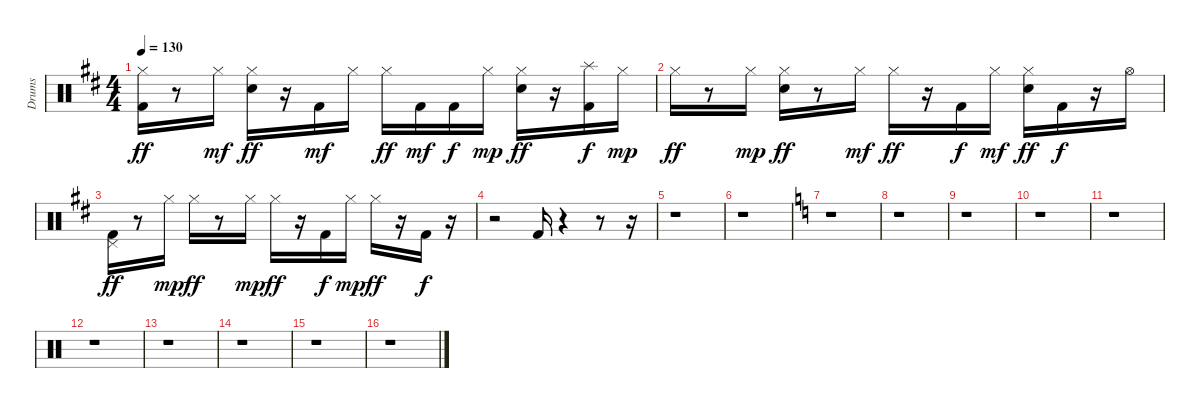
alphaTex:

\track ("Drums" "Drums") {instrument percussion}
\staff {score}
\articulation defaults
\ts (4 4)
\tempo 130
\clef neutral
\ks d
("Kick (hit) 2" "Hi-Hat (closed)").16{dy ff} r.8 "Hi-Hat (closed)".16{dy mf} ("Electric Snare (hit)" "Hi-Hat (closed)").16{dy ff} r.16 "Kick (hit) 2".16{dy mf} "Hi-Hat (closed)".16 "Hi-Hat (closed)".16{dy ff} "Kick (hit) 2".16{dy mf} "Kick (hit) 2".16{dy f} "Hi-Hat (closed)".16{dy mp} ("Electric Snare (hit)" "Hi-Hat (closed)").16{dy ff} r.16 ("Splash (hit)" "Kick (hit) 2").16{dy f} "Hi-Hat (closed)".16{dy mp} |
"Hi-Hat (closed)".16{dy ff} r.8 "Hi-Hat (closed)".16{dy mp} ("Hi-Hat (closed)" "Electric Snare (hit)").16{dy ff} r.8 "Hi-Hat (closed)".16{dy mf} "Hi-Hat (closed)".16{dy ff} r.16 "Kick (hit) 2".16{dy f} "Hi-Hat (closed)".16{dy mf} ("Hi-Hat (closed)" "Electric Snare (hit)").16{dy ff} "Kick (hit) 2".16{dy f} r.16 "Hi-Hat (open)".16 |
("Kick (hit) 2" "Pedal Hi-Hat (hit)").16{dy ff} r.8 "Hi-Hat (closed)".16{dy mp} "Hi-Hat (closed)".16{dy ff} r.8 "Hi-Hat (closed)".16{dy mp} "Hi-Hat (closed)".16{dy ff} r.16 "Kick (hit) 2".16{dy f} "Hi-Hat (closed)".16{dy mp} "Hi-Hat (closed)".16{dy ff} r.16 "Kick (hit) 2".16{dy f} r.16 |
r.2 "Kick (hit) 2".16 r.4 r.8 r.16 |
r.1 |
r.1 |
\ks c
r.1 |
r.1 |
r.1 |
r.1 |
r.1 |
r.1 |
r.1 |
r.1 |
r.1 |
r.1
